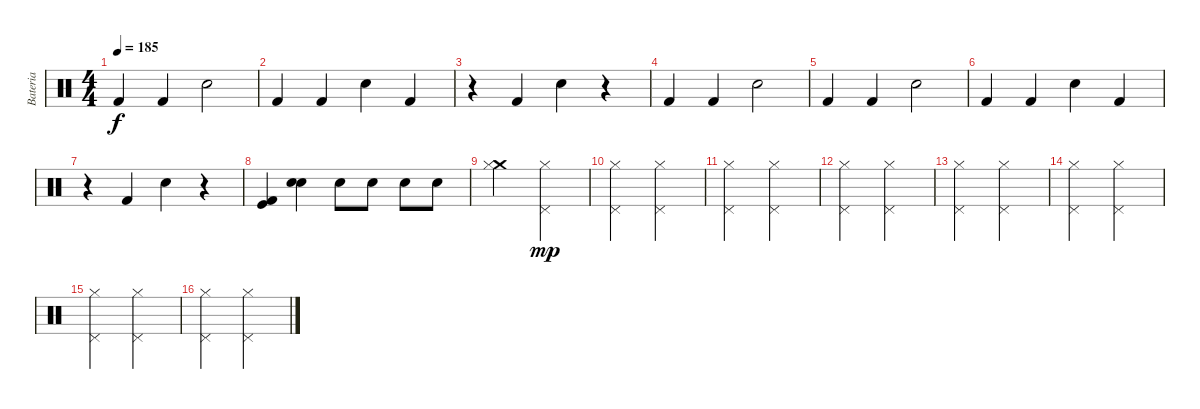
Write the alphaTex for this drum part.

\track ("Bateria" "Bateria") {instrument percussion}
\staff {score}
\articulation defaults
\ts (4 4)
\tempo 185
\clef neutral
\ks c "Kick (hit) 2".4{dy f} "Kick (hit) 2".4 "Electric Snare (hit)".2
|
"Kick (hit) 2".4 "Kick (hit) 2".4 "Electric Snare (hit)".4 "Kick (hit) 2".4 |
r.4 "Kick (hit) 2".4 "Electric Snare (hit)".4 r.4 |
"Kick (hit) 2".4 "Kick (hit) 2".4 "Electric Snare (hit)".2 |
"Kick (hit) 2".4 "Kick (hit) 2".4 "Electric Snare (hit)".2 |
"Kick (hit) 2".4 "Kick (hit) 2".4 "Electric Snare (hit)".4 "Kick (hit) 2".4 |
r.4 "Kick (hit) 2".4 "Electric Snare (hit)".4 r.4 |
("Kick (hit)" "Kick (hit) 2").4 ("Electric Snare (hit)" "Snare (hit) 2").4 "Electric Snare (hit)".8 "Electric Snare (hit)".8 "Electric Snare (hit)".8 "Electric Snare (hit)".8 |
("Crash medium (hit)" "Hi-Hat (closed)").2 ("Hi-Hat (closed)" "Pedal Hi-Hat (hit)").2{dy mp} |
("Pedal Hi-Hat (hit)" "Hi-Hat (closed)").2 ("Pedal Hi-Hat (hit)" "Hi-Hat (closed)").2 |
("Pedal Hi-Hat (hit)" "Hi-Hat (closed)").2 ("Pedal Hi-Hat (hit)" "Hi-Hat (closed)").2 |
("Pedal Hi-Hat (hit)" "Hi-Hat (closed)").2 ("Pedal Hi-Hat (hit)" "Hi-Hat (closed)").2 |
("Pedal Hi-Hat (hit)" "Hi-Hat (closed)").2 ("Pedal Hi-Hat (hit)" "Hi-Hat (closed)").2 |
("Pedal Hi-Hat (hit)" "Hi-Hat (closed)").2 ("Pedal Hi-Hat (hit)" "Hi-Hat (closed)").2 |
("Pedal Hi-Hat (hit)" "Hi-Hat (closed)").2 ("Pedal Hi-Hat (hit)" "Hi-Hat (closed)").2 |
("Pedal Hi-Hat (hit)" "Hi-Hat (closed)").2 ("Pedal Hi-Hat (hit)" "Hi-Hat (closed)").2
